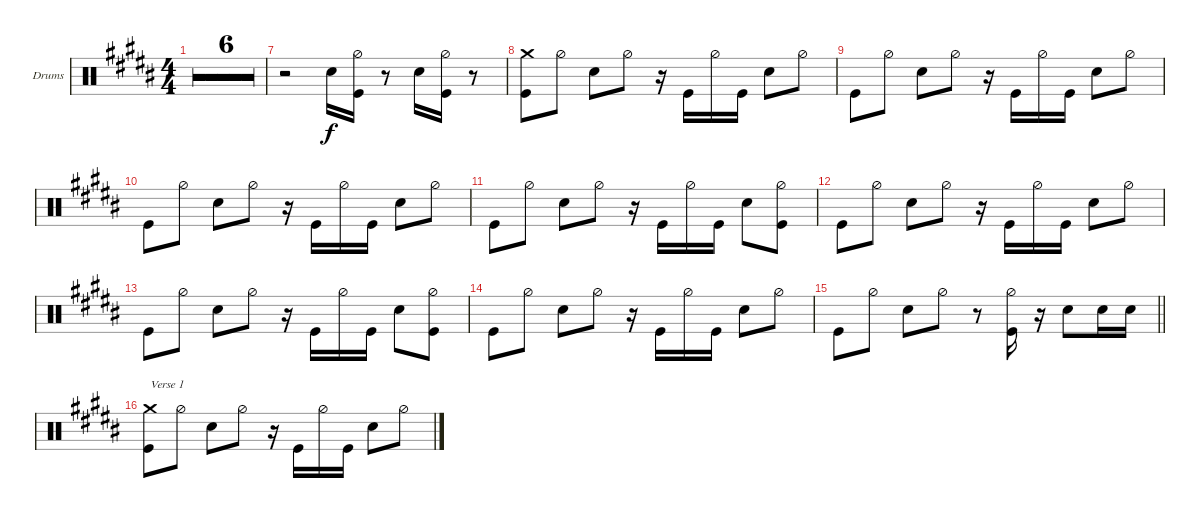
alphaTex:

\defaultSystemsLayout 4
\bracketExtendMode groupsimilarinstruments
\firstSystemTrackNameOrientation horizontal
\otherSystemsTrackNameOrientation horizontal
\track ("Drumkit" "Drums") {multiBarRest instrument percussion}
\staff {score}
\articulation defaults
\ts (4 4)
\tempo 122
\clef neutral
\ks b
|
|
|
|
|
|
r.2 "Snare (hit) 2".16 ("Kick (hit)" "Hi-Hat (half)").16 r.8 "Snare (hit) 2".16 ("Kick (hit)" "Hi-Hat (half)").16 r.8 |
("Kick (hit)" "Crash medium (hit)").8 "Hi-Hat (half)".8 "Snare (hit) 2".8 "Hi-Hat (half)".8 r.16 "Kick (hit)".16 "Hi-Hat (half)".16 "Kick (hit)".16 "Snare (hit) 2".8 "Hi-Hat (half)".8 |
"Kick (hit)".8 "Hi-Hat (half)".8 "Snare (hit) 2".8 "Hi-Hat (half)".8 r.16 "Kick (hit)".16 "Hi-Hat (half)".16 "Kick (hit)".16 "Snare (hit) 2".8 "Hi-Hat (half)".8 |
"Kick (hit)".8 "Hi-Hat (half)".8 "Snare (hit) 2".8 "Hi-Hat (half)".8 r.16 "Kick (hit)".16 "Hi-Hat (half)".16 "Kick (hit)".16 "Snare (hit) 2".8 "Hi-Hat (half)".8 |
"Kick (hit)".8 "Hi-Hat (half)".8 "Snare (hit) 2".8 "Hi-Hat (half)".8 r.16 "Kick (hit)".16 "Hi-Hat (half)".16 "Kick (hit)".16 "Snare (hit) 2".8 ("Kick (hit)" "Hi-Hat (half)").8 |
"Kick (hit)".8 "Hi-Hat (half)".8 "Snare (hit) 2".8 "Hi-Hat (half)".8 r.16 "Kick (hit)".16 "Hi-Hat (half)".16 "Kick (hit)".16 "Snare (hit) 2".8 "Hi-Hat (half)".8 |
"Kick (hit)".8 "Hi-Hat (half)".8 "Snare (hit) 2".8 "Hi-Hat (half)".8 r.16 "Kick (hit)".16 "Hi-Hat (half)".16 "Kick (hit)".16 "Snare (hit) 2".8 ("Kick (hit)" "Hi-Hat (half)").8 |
"Kick (hit)".8 "Hi-Hat (half)".8 "Snare (hit) 2".8 "Hi-Hat (half)".8 r.16 "Kick (hit)".16 "Hi-Hat (half)".16 "Kick (hit)".16 "Snare (hit) 2".8 "Hi-Hat (half)".8 |
\barLineRight lightlight "Kick (hit)".8 "Hi-Hat (half)".8 "Snare (hit) 2".8 "Hi-Hat (half)".8
r.8 ("Kick (hit)" "Hi-Hat (half)").16 r.16 "Snare (hit) 2".8 "Snare (hit) 2".16 "Snare (hit) 2".16 |
("Kick (hit)" "Crash medium (hit)").8{txt "Verse 1"} "Hi-Hat (half)".8 "Snare (hit) 2".8 "Hi-Hat (half)".8 r.16 "Kick (hit)".16 "Hi-Hat (half)".16 "Kick (hit)".16 "Snare (hit) 2".8 "Hi-Hat (half)".8
